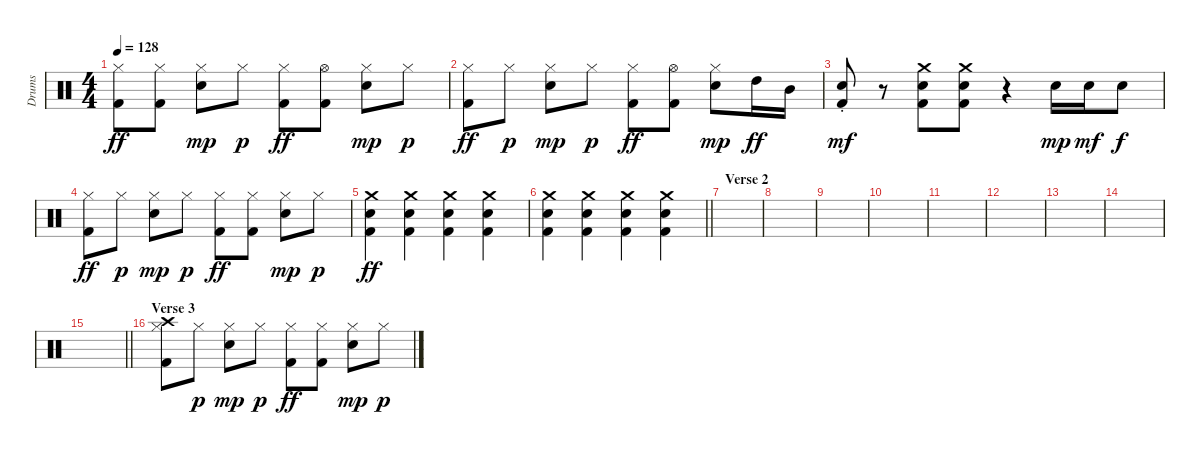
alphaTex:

\track ("Drums" "Drums") {instrument percussion}
\staff {score}
\articulation defaults
\ts (4 4)
\tempo 128
\clef neutral
\ks c
("Hi-Hat (closed)" "Kick (hit) 2").8{dy ff} ("Hi-Hat (closed)" "Kick (hit) 2").8 ("Hi-Hat (closed)" "Snare (hit) 2").8{dy mp} "Hi-Hat (closed)".8{dy p} ("Hi-Hat (closed)" "Kick (hit) 2").8{dy ff} ("Hi-Hat (open)" "Kick (hit) 2").8 ("Hi-Hat (closed)" "Snare (hit) 2").8{dy mp} "Hi-Hat (closed)".8{dy p} |
("Hi-Hat (closed)" "Kick (hit) 2").8{dy ff} "Hi-Hat (closed)".8{dy p} ("Hi-Hat (closed)" "Snare (hit) 2").8{dy mp} "Hi-Hat (closed)".8{dy p} ("Hi-Hat (closed)" "Kick (hit) 2").8{dy ff} ("Hi-Hat (open)" "Kick (hit) 2").8 ("Hi-Hat (closed)" "Snare (hit) 2").8{dy mp} "High Tom (hit)".16{dy ff} "Mid Tom (hit)".16 |
("Snare (hit) 2"{st} "Kick (hit) 2").8{dy mf} r.8 ("Crash medium (hit)" "Snare (hit) 2" "Kick (hit) 2").8 ("Crash medium (hit)" "Snare (hit) 2" "Kick (hit) 2").8 r.4 "Snare (hit) 2".16{dy mp} "Snare (hit) 2".16{dy mf} "Snare (hit) 2".8{dy f} |
("Hi-Hat (closed)" "Kick (hit) 2").8{dy ff} "Hi-Hat (closed)".8{dy p} ("Hi-Hat (closed)" "Snare (hit) 2").8{dy mp} "Hi-Hat (closed)".8{dy p} ("Hi-Hat (closed)" "Kick (hit) 2").8{dy ff} ("Hi-Hat (closed)" "Kick (hit) 2").8 ("Hi-Hat (closed)" "Snare (hit) 2").8{dy mp} "Hi-Hat (closed)".8{dy p} |
("Crash medium (hit)" "Snare (hit) 2" "Kick (hit) 2").4{dy ff} ("Crash medium (hit)" "Snare (hit) 2" "Kick (hit) 2").4 ("Crash medium (hit)" "Snare (hit) 2" "Kick (hit) 2").4 ("Crash medium (hit)" "Snare (hit) 2" "Kick (hit) 2").4 |
\barLineRight lightlight
("Crash medium (hit)" "Snare (hit) 2" "Kick (hit) 2").4 ("Crash medium (hit)" "Snare (hit) 2" "Kick (hit) 2").4 ("Crash medium (hit)" "Snare (hit) 2" "Kick (hit) 2").4 ("Crash medium (hit)" "Snare (hit) 2" "Kick (hit) 2").4 |
\section ("" "Verse 2")
|
|
|
|
|
|
|
|
\barLineRight lightlight
|
\section ("" "Verse 3")
("Crash high (hit)" "Hi-Hat (closed)" "Kick (hit) 2").8 "Hi-Hat (closed)".8{dy p} ("Hi-Hat (closed)" "Snare (hit) 2").8{dy mp} "Hi-Hat (closed)".8{dy p} ("Hi-Hat (closed)" "Kick (hit) 2").8{dy ff} ("Hi-Hat (closed)" "Kick (hit) 2").8 ("Hi-Hat (closed)" "Snare (hit) 2").8{dy mp} "Hi-Hat (closed)".8{dy p}
